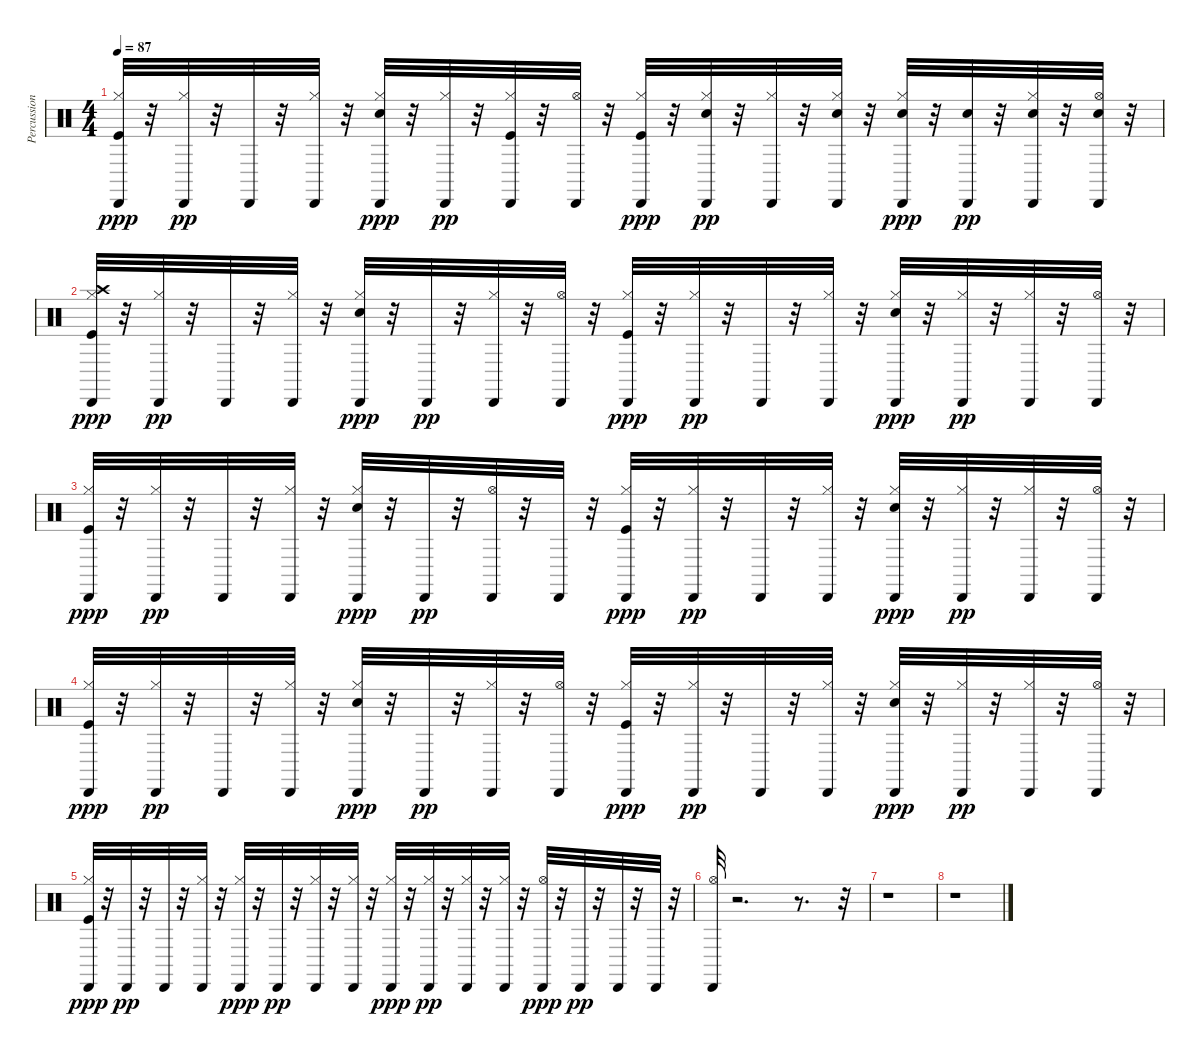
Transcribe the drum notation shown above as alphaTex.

\track ("Percussion" "Percussion") {instrument percussion}
\staff {score}
\articulation defaults
\ts (4 4)
\tempo 87
\clef neutral
\ks c
("Kick (hit)" "Hi-Hat (closed)" "Cabasa (hit)").32{dy ppp} r.32 ("Hi-Hat (closed)" "Cabasa (hit)").32{dy pp} r.32 "Cabasa (hit)".32 r.32 ("Hi-Hat (closed)" "Cabasa (hit)").32 r.32 ("Snare (hit) 2" "Hi-Hat (closed)" "Cabasa (hit)").32{dy ppp} r.32 ("Hi-Hat (closed)" "Cabasa (hit)").32{dy pp} r.32 ("Kick (hit)" "Hi-Hat (closed)" "Cabasa (hit)").32 r.32 ("Hi-Hat (open)" "Cabasa (hit)").32 r.32 ("Kick (hit)" "Hi-Hat (closed)" "Cabasa (hit)").32{dy ppp} r.32 ("Snare (hit) 2" "Hi-Hat (closed)" "Cabasa (hit)").32{dy pp} r.32 ("Hi-Hat (closed)" "Cabasa (hit)").32 r.32 ("Snare (hit) 2" "Hi-Hat (closed)" "Cabasa (hit)").32 r.32 ("Snare (hit) 2" "Hi-Hat (closed)" "Cabasa (hit)").32{dy ppp} r.32 ("Snare (hit) 2" "Cabasa (hit)").32{dy pp} r.32 ("Snare (hit) 2" "Hi-Hat (closed)" "Cabasa (hit)").32 r.32 ("Snare (hit) 2" "Hi-Hat (open)" "Cabasa (hit)").32 r.32 |
("Kick (hit)" "Hi-Hat (closed)" "Crash high (hit)" "Cabasa (hit)").32{dy ppp} r.32 ("Hi-Hat (closed)" "Cabasa (hit)").32{dy pp} r.32 "Cabasa (hit)".32 r.32 ("Hi-Hat (closed)" "Cabasa (hit)").32 r.32 ("Snare (hit) 2" "Hi-Hat (closed)" "Cabasa (hit)").32{dy ppp} r.32 "Cabasa (hit)".32{dy pp} r.32 ("Hi-Hat (closed)" "Cabasa (hit)").32 r.32 ("Hi-Hat (open)" "Cabasa (hit)").32 r.32 ("Kick (hit)" "Hi-Hat (closed)" "Cabasa (hit)").32{dy ppp} r.32 ("Hi-Hat (closed)" "Cabasa (hit)").32{dy pp} r.32 "Cabasa (hit)".32 r.32 ("Hi-Hat (closed)" "Cabasa (hit)").32 r.32 ("Snare (hit) 2" "Hi-Hat (closed)" "Cabasa (hit)").32{dy ppp} r.32 ("Hi-Hat (closed)" "Cabasa (hit)").32{dy pp} r.32 ("Hi-Hat (closed)" "Cabasa (hit)").32 r.32 ("Hi-Hat (open)" "Cabasa (hit)").32 r.32 |
("Kick (hit)" "Hi-Hat (closed)" "Cabasa (hit)").32{dy ppp} r.32 ("Hi-Hat (closed)" "Cabasa (hit)").32{dy pp} r.32 "Cabasa (hit)".32 r.32 ("Hi-Hat (closed)" "Cabasa (hit)").32 r.32 ("Snare (hit) 2" "Hi-Hat (closed)" "Cabasa (hit)").32{dy ppp} r.32 "Cabasa (hit)".32{dy pp} r.32 ("Hi-Hat (open)" "Cabasa (hit)").32 r.32 "Cabasa (hit)".32 r.32 ("Kick (hit)" "Hi-Hat (closed)" "Cabasa (hit)").32{dy ppp} r.32 ("Hi-Hat (closed)" "Cabasa (hit)").32{dy pp} r.32 "Cabasa (hit)".32 r.32 ("Hi-Hat (closed)" "Cabasa (hit)").32 r.32 ("Snare (hit) 2" "Hi-Hat (closed)" "Cabasa (hit)").32{dy ppp} r.32 ("Hi-Hat (closed)" "Cabasa (hit)").32{dy pp} r.32 ("Hi-Hat (closed)" "Cabasa (hit)").32 r.32 ("Hi-Hat (open)" "Cabasa (hit)").32 r.32 |
("Kick (hit)" "Hi-Hat (closed)" "Cabasa (hit)").32{dy ppp} r.32 ("Hi-Hat (closed)" "Cabasa (hit)").32{dy pp} r.32 "Cabasa (hit)".32 r.32 ("Hi-Hat (closed)" "Cabasa (hit)").32 r.32 ("Snare (hit) 2" "Hi-Hat (closed)" "Cabasa (hit)").32{dy ppp} r.32 "Cabasa (hit)".32{dy pp} r.32 ("Hi-Hat (closed)" "Cabasa (hit)").32 r.32 ("Hi-Hat (open)" "Cabasa (hit)").32 r.32 ("Kick (hit)" "Hi-Hat (closed)" "Cabasa (hit)").32{dy ppp} r.32 ("Hi-Hat (closed)" "Cabasa (hit)").32{dy pp} r.32 "Cabasa (hit)".32 r.32 ("Hi-Hat (closed)" "Cabasa (hit)").32 r.32 ("Snare (hit) 2" "Hi-Hat (closed)" "Cabasa (hit)").32{dy ppp} r.32 ("Hi-Hat (closed)" "Cabasa (hit)").32{dy pp} r.32 ("Hi-Hat (closed)" "Cabasa (hit)").32 r.32 ("Hi-Hat (open)" "Cabasa (hit)").32 r.32 |
("Kick (hit)" "Hi-Hat (closed)" "Cabasa (hit)").32{dy ppp} r.32 "Cabasa (hit)".32{dy pp} r.32 "Cabasa (hit)".32 r.32 ("Hi-Hat (closed)" "Cabasa (hit)").32 r.32 ("Hi-Hat (closed)" "Cabasa (hit)").32{dy ppp} r.32 "Cabasa (hit)".32{dy pp} r.32 ("Hi-Hat (closed)" "Cabasa (hit)").32 r.32 ("Hi-Hat (closed)" "Cabasa (hit)").32 r.32 ("Hi-Hat (closed)" "Cabasa (hit)").32{dy ppp} r.32 ("Hi-Hat (closed)" "Cabasa (hit)").32{dy pp} r.32 ("Hi-Hat (closed)" "Cabasa (hit)").32 r.32 ("Hi-Hat (closed)" "Cabasa (hit)").32 r.32 ("Hi-Hat (open)" "Cabasa (hit)").32{dy ppp} r.32 "Cabasa (hit)".32{dy pp} r.32 "Cabasa (hit)".32 r.32 "Cabasa (hit)".32 r.32 |
("Hi-Hat (open)" "Cabasa (hit)").32 r.2{d} r.8{d} r.32 |
r.1 |
r.1
